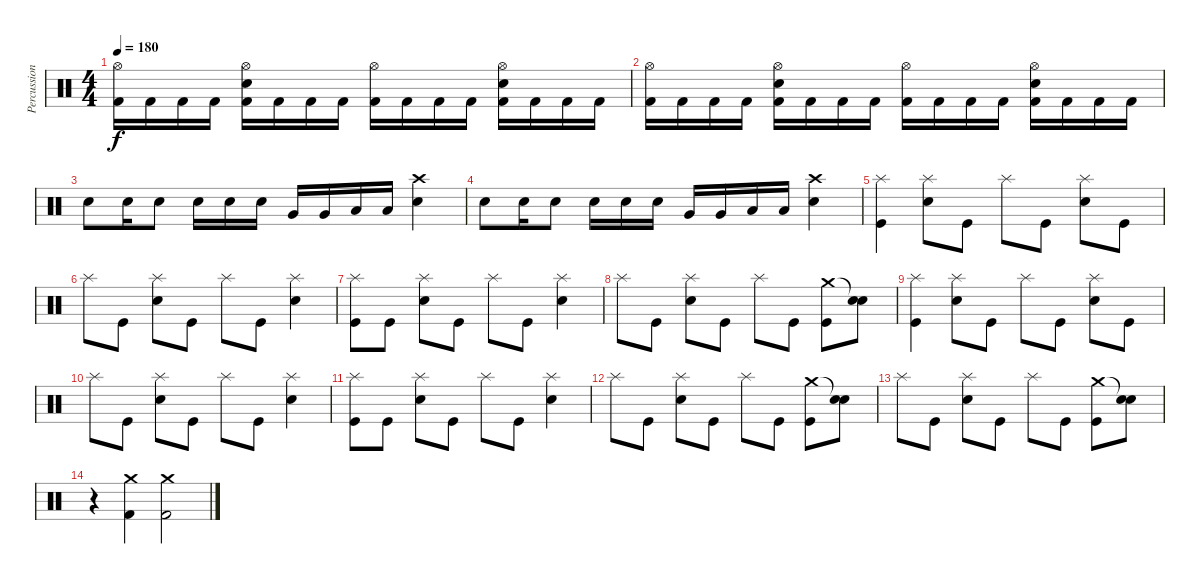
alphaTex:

\track ("Percussion" "Percussion") {instrument percussion}
\staff {score}
\articulation defaults
\ts (4 4)
\tempo 180
\clef neutral
\ks c
("Hi-Hat (open)" "Kick (hit) 2").16{dy f} "Kick (hit) 2".16 "Kick (hit) 2".16 "Kick (hit) 2".16 ("Hi-Hat (open)" "Electric Snare (hit)" "Kick (hit) 2").16 "Kick (hit) 2".16 "Kick (hit) 2".16 "Kick (hit) 2".16 ("Hi-Hat (open)" "Kick (hit) 2").16 "Kick (hit) 2".16 "Kick (hit) 2".16 "Kick (hit) 2".16 ("Hi-Hat (open)" "Electric Snare (hit)" "Kick (hit) 2").16 "Kick (hit) 2".16 "Kick (hit) 2".16 "Kick (hit) 2".16 |
("Hi-Hat (open)" "Kick (hit) 2").16 "Kick (hit) 2".16 "Kick (hit) 2".16 "Kick (hit) 2".16 ("Hi-Hat (open)" "Electric Snare (hit)" "Kick (hit) 2").16 "Kick (hit) 2".16 "Kick (hit) 2".16 "Kick (hit) 2".16 ("Hi-Hat (open)" "Kick (hit) 2").16 "Kick (hit) 2".16 "Kick (hit) 2".16 "Kick (hit) 2".16 ("Hi-Hat (open)" "Electric Snare (hit)" "Kick (hit) 2").16 "Kick (hit) 2".16 "Kick (hit) 2".16 "Kick (hit) 2".16 |
"Electric Snare (hit)".8 "Electric Snare (hit)".16 "Electric Snare (hit)".8 "Electric Snare (hit)".16 "Electric Snare (hit)".16 "Electric Snare (hit)".16 "Very Low Tom (hit)".16 "Very Low Tom (hit)".16 "Low Floor Tom (hit)".16 "Low Floor Tom (hit)".16 ("Crash high (hit)" "Electric Snare (hit)").4 |
"Electric Snare (hit)".8 "Electric Snare (hit)".16 "Electric Snare (hit)".8 "Electric Snare (hit)".16 "Electric Snare (hit)".16 "Electric Snare (hit)".16 "Very Low Tom (hit)".16 "Very Low Tom (hit)".16 "Low Floor Tom (hit)".16 "Low Floor Tom (hit)".16 ("Crash high (hit)" "Electric Snare (hit)").4 |
("Splash (hit)" "Kick (hit)").4 ("Splash (hit)" "Electric Snare (hit)").8 "Kick (hit)".8 "Splash (hit)".8 "Kick (hit)".8 ("Splash (hit)" "Electric Snare (hit)").8 "Kick (hit)".8 |
"Splash (hit)".8 "Kick (hit)".8 ("Splash (hit)" "Electric Snare (hit)").8 "Kick (hit)".8 "Splash (hit)".8 "Kick (hit)".8 ("Splash (hit)" "Electric Snare (hit)").4 |
("Splash (hit)" "Kick (hit)").8 "Kick (hit)".8 ("Splash (hit)" "Electric Snare (hit)").8 "Kick (hit)".8 "Splash (hit)".8 "Kick (hit)".8 ("Splash (hit)" "Electric Snare (hit)").4 |
"Splash (hit)".8 "Kick (hit)".8 ("Splash (hit)" "Electric Snare (hit)").8 "Kick (hit)".8 "Splash (hit)".8 "Kick (hit)".8 ("Crash medium (hit)" "Kick (hit)").8 ("Snare (hit)"{t} "Electric Snare (hit)").8 |
("Splash (hit)" "Kick (hit)").4 ("Splash (hit)" "Electric Snare (hit)").8 "Kick (hit)".8 "Splash (hit)".8 "Kick (hit)".8 ("Splash (hit)" "Electric Snare (hit)").8 "Kick (hit)".8 |
"Splash (hit)".8 "Kick (hit)".8 ("Splash (hit)" "Electric Snare (hit)").8 "Kick (hit)".8 "Splash (hit)".8 "Kick (hit)".8 ("Splash (hit)" "Electric Snare (hit)").4 |
("Splash (hit)" "Kick (hit)").8 "Kick (hit)".8 ("Splash (hit)" "Electric Snare (hit)").8 "Kick (hit)".8 "Splash (hit)".8 "Kick (hit)".8 ("Splash (hit)" "Electric Snare (hit)").4 |
"Splash (hit)".8 "Kick (hit)".8 ("Splash (hit)" "Electric Snare (hit)").8 "Kick (hit)".8 "Splash (hit)".8 "Kick (hit)".8 ("Crash medium (hit)" "Kick (hit)").8 ("Snare (hit)"{t} "Electric Snare (hit)").8 |
"Splash (hit)".8 "Kick (hit)".8 ("Splash (hit)" "Electric Snare (hit)").8 "Kick (hit)".8 "Splash (hit)".8 "Kick (hit)".8 ("Crash medium (hit)" "Kick (hit)").8 ("Snare (hit)"{t} "Electric Snare (hit)").8 |
r.4 ("Kick (hit) 2" "Crash medium (hit)").4 ("Kick (hit) 2" "Crash medium (hit)").2
